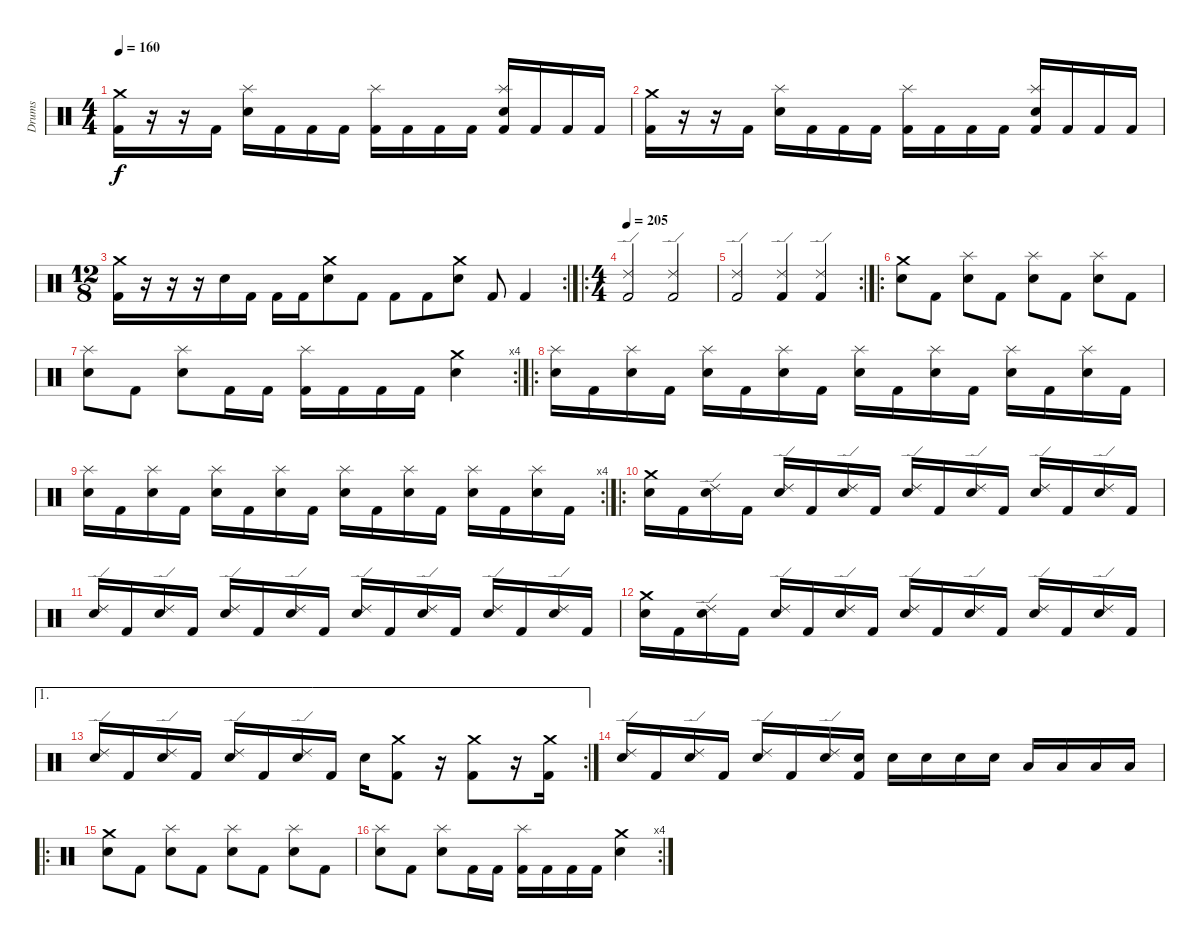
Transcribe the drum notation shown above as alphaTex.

\track ("Drums" "Drums") {instrument percussion}
\staff {score}
\articulation defaults
\ts (4 4)
\tempo 160
\clef neutral
\ks c
("Crash medium (hit)" "Kick (hit) 2").16{dy f} r.16 r.16 "Kick (hit) 2".16 ("Splash (hit)" "Electric Snare (hit)").16 "Kick (hit) 2".16 "Kick (hit) 2".16 "Kick (hit) 2".16 ("Splash (hit)" "Kick (hit) 2").16 "Kick (hit) 2".16 "Kick (hit) 2".16 "Kick (hit) 2".16 ("Splash (hit)" "Electric Snare (hit)" "Kick (hit) 2").16 "Kick (hit) 2".16 "Kick (hit) 2".16 "Kick (hit) 2".16 |
("Crash medium (hit)" "Kick (hit) 2").16 r.16 r.16 "Kick (hit) 2".16 ("Splash (hit)" "Electric Snare (hit)").16 "Kick (hit) 2".16 "Kick (hit) 2".16 "Kick (hit) 2".16 ("Splash (hit)" "Kick (hit) 2").16 "Kick (hit) 2".16 "Kick (hit) 2".16 "Kick (hit) 2".16 ("Splash (hit)" "Electric Snare (hit)" "Kick (hit) 2").16 "Kick (hit) 2".16 "Kick (hit) 2".16 "Kick (hit) 2".16 |
\rc 2
\ts (12 8)
("Crash medium (hit)" "Kick (hit) 2").16 r.16 r.16 r.16 "Electric Snare (hit)".16 "Kick (hit) 2".16 "Kick (hit) 2".16 "Kick (hit) 2".16 ("Crash medium (hit)" "Electric Snare (hit)").8 "Kick (hit) 2".8 "Kick (hit) 2".8 "Kick (hit) 2".8 ("Crash medium (hit)" "Electric Snare (hit)").8 "Kick (hit) 2".8 "Kick (hit) 2".4 |
\ro
\ts (4 4)
\tempo 205
("Ride (edge) 2" "Kick (hit) 2").2 ("Ride (edge) 2" "Kick (hit) 2").2 |
\rc 2
("Ride (edge) 2" "Kick (hit) 2").2 ("Ride (edge) 2" "Kick (hit) 2").4 ("Ride (edge) 2" "Kick (hit) 2").4 |
\ro
("Crash medium (hit)" "Electric Snare (hit)").8 "Kick (hit) 2".8 ("Splash (hit)" "Electric Snare (hit)").8 "Kick (hit) 2".8 ("Splash (hit)" "Electric Snare (hit)").8 "Kick (hit) 2".8 ("Splash (hit)" "Electric Snare (hit)").8 "Kick (hit) 2".8 |
\rc 4
("Splash (hit)" "Electric Snare (hit)").8 "Kick (hit) 2".8 ("Splash (hit)" "Electric Snare (hit)").8 "Kick (hit) 2".16 "Kick (hit) 2".16 ("Splash (hit)" "Kick (hit) 2").16 "Kick (hit) 2".16 "Kick (hit) 2".16 "Kick (hit) 2".16 ("Crash medium (hit)" "Electric Snare (hit)").4 |
\ro
("Splash (hit)" "Electric Snare (hit)").16 "Kick (hit) 2".16 ("Splash (hit)" "Electric Snare (hit)").16 "Kick (hit) 2".16 ("Splash (hit)" "Electric Snare (hit)").16 "Kick (hit) 2".16 ("Splash (hit)" "Electric Snare (hit)").16 "Kick (hit) 2".16 ("Splash (hit)" "Electric Snare (hit)").16 "Kick (hit) 2".16 ("Splash (hit)" "Electric Snare (hit)").16 "Kick (hit) 2".16 ("Splash (hit)" "Electric Snare (hit)").16 "Kick (hit) 2".16 ("Splash (hit)" "Electric Snare (hit)").16 "Kick (hit) 2".16 |
\rc 4
("Splash (hit)" "Electric Snare (hit)").16 "Kick (hit) 2".16 ("Splash (hit)" "Electric Snare (hit)").16 "Kick (hit) 2".16 ("Splash (hit)" "Electric Snare (hit)").16 "Kick (hit) 2".16 ("Splash (hit)" "Electric Snare (hit)").16 "Kick (hit) 2".16 ("Splash (hit)" "Electric Snare (hit)").16 "Kick (hit) 2".16 ("Splash (hit)" "Electric Snare (hit)").16 "Kick (hit) 2".16 ("Splash (hit)" "Electric Snare (hit)").16 "Kick (hit) 2".16 ("Splash (hit)" "Electric Snare (hit)").16 "Kick (hit) 2".16 |
\ro
("Crash medium (hit)" "Electric Snare (hit)").16 "Kick (hit) 2".16 ("Ride (edge) 2" "Electric Snare (hit)").16 "Kick (hit) 2".16 ("Ride (edge) 2" "Electric Snare (hit)").16 "Kick (hit) 2".16 ("Ride (edge) 2" "Electric Snare (hit)").16 "Kick (hit) 2".16 ("Ride (edge) 2" "Electric Snare (hit)").16 "Kick (hit) 2".16 ("Ride (edge) 2" "Electric Snare (hit)").16 "Kick (hit) 2".16 ("Ride (edge) 2" "Electric Snare (hit)").16 "Kick (hit) 2".16 ("Ride (edge) 2" "Electric Snare (hit)").16 "Kick (hit) 2".16 |
("Ride (edge) 2" "Electric Snare (hit)").16 "Kick (hit) 2".16 ("Ride (edge) 2" "Electric Snare (hit)").16 "Kick (hit) 2".16 ("Ride (edge) 2" "Electric Snare (hit)").16 "Kick (hit) 2".16 ("Ride (edge) 2" "Electric Snare (hit)").16 "Kick (hit) 2".16 ("Ride (edge) 2" "Electric Snare (hit)").16 "Kick (hit) 2".16 ("Ride (edge) 2" "Electric Snare (hit)").16 "Kick (hit) 2".16 ("Ride (edge) 2" "Electric Snare (hit)").16 "Kick (hit) 2".16 ("Ride (edge) 2" "Electric Snare (hit)").16 "Kick (hit) 2".16 |
("Crash medium (hit)" "Electric Snare (hit)").16 "Kick (hit) 2".16 ("Ride (edge) 2" "Electric Snare (hit)").16 "Kick (hit) 2".16 ("Ride (edge) 2" "Electric Snare (hit)").16 "Kick (hit) 2".16 ("Ride (edge) 2" "Electric Snare (hit)").16 "Kick (hit) 2".16 ("Ride (edge) 2" "Electric Snare (hit)").16 "Kick (hit) 2".16 ("Ride (edge) 2" "Electric Snare (hit)").16 "Kick (hit) 2".16 ("Ride (edge) 2" "Electric Snare (hit)").16 "Kick (hit) 2".16 ("Ride (edge) 2" "Electric Snare (hit)").16 "Kick (hit) 2".16 |
\ae 1
\rc 2
("Ride (edge) 2" "Electric Snare (hit)").16 "Kick (hit) 2".16 ("Ride (edge) 2" "Electric Snare (hit)").16 "Kick (hit) 2".16 ("Ride (edge) 2" "Electric Snare (hit)").16 "Kick (hit) 2".16 ("Ride (edge) 2" "Electric Snare (hit)").16 "Kick (hit) 2".16 "Electric Snare (hit)".16 ("Crash medium (hit)" "Kick (hit) 2").8 r.16 ("Crash medium (hit)" "Kick (hit) 2").8 r.16 ("Crash medium (hit)" "Kick (hit) 2").16 |
("Ride (edge) 2" "Electric Snare (hit)").16 "Kick (hit) 2".16 ("Ride (edge) 2" "Electric Snare (hit)").16 "Kick (hit) 2".16 ("Ride (edge) 2" "Electric Snare (hit)").16 "Kick (hit) 2".16 ("Ride (edge) 2" "Electric Snare (hit)").16 ("Electric Snare (hit)" "Kick (hit) 2").16 "Electric Snare (hit)".16 "Electric Snare (hit)".16 "Electric Snare (hit)".16 "Electric Snare (hit)".16 "Low Tom (hit)".16 "Low Tom (hit)".16 "Low Tom (hit)".16 "Low Tom (hit)".16 |
\ro
("Crash medium (hit)" "Electric Snare (hit)").8 "Kick (hit) 2".8 ("Splash (hit)" "Electric Snare (hit)").8 "Kick (hit) 2".8 ("Splash (hit)" "Electric Snare (hit)").8 "Kick (hit) 2".8 ("Splash (hit)" "Electric Snare (hit)").8 "Kick (hit) 2".8 |
\rc 4
("Splash (hit)" "Electric Snare (hit)").8 "Kick (hit) 2".8 ("Splash (hit)" "Electric Snare (hit)").8 "Kick (hit) 2".16 "Kick (hit) 2".16 ("Splash (hit)" "Kick (hit) 2").16 "Kick (hit) 2".16 "Kick (hit) 2".16 "Kick (hit) 2".16 ("Crash medium (hit)" "Electric Snare (hit)").4
